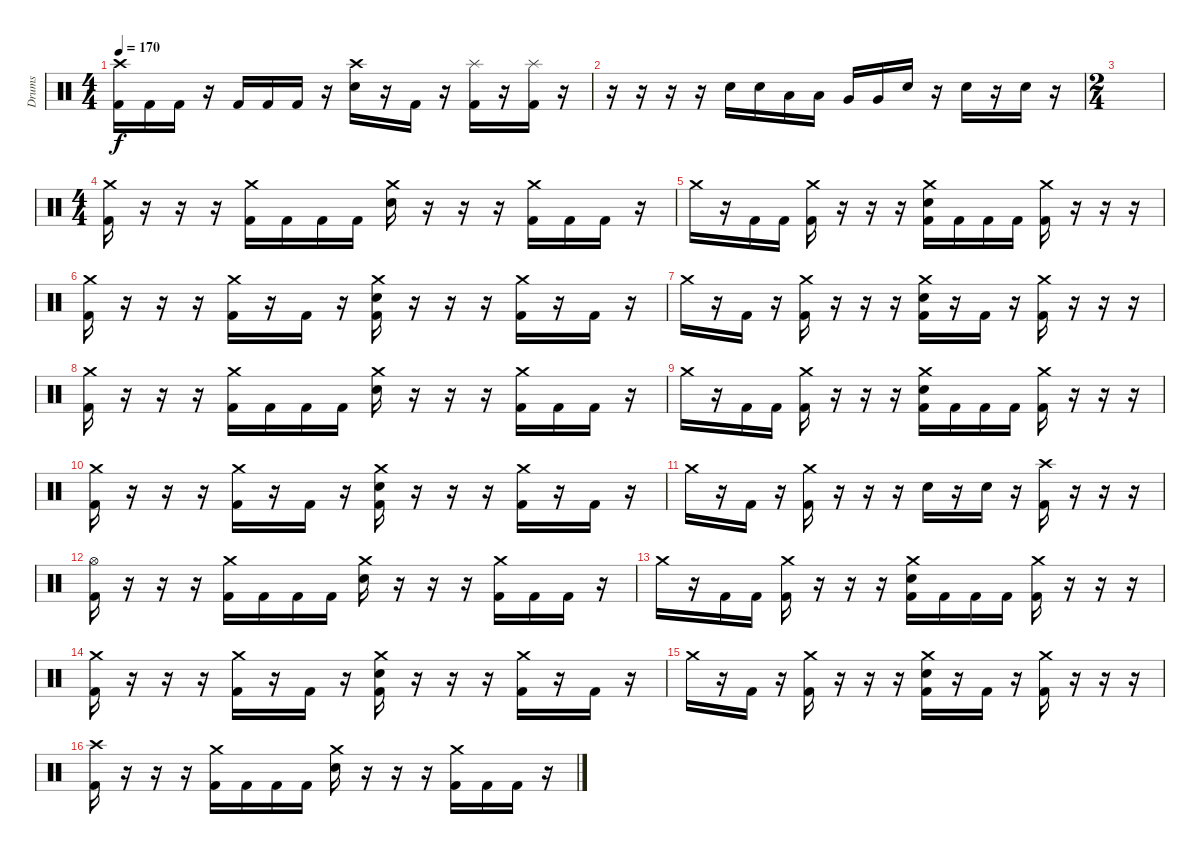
\track ("Drums" "Drums") {instrument percussion}
\staff {score}
\articulation defaults
\ts (4 4)
\tempo 170
\clef neutral
\ks c
("Crash high (hit)" "Kick (hit) 2").16{dy f} "Kick (hit) 2".16 "Kick (hit) 2".16 r.16 "Kick (hit) 2".16 "Kick (hit) 2".16 "Kick (hit) 2".16 r.16 ("Crash high (hit)" "Electric Snare (hit)").16 r.16 "Kick (hit) 2".16 r.16 ("Splash (hit)" "Kick (hit) 2").16 r.16 ("Splash (hit)" "Kick (hit) 2").16 r.16 |
r.16 r.16 r.16 r.16 "Electric Snare (hit)".16 "Electric Snare (hit)".16 "Low Tom (hit)".16 "Low Tom (hit)".16 "Very Low Tom (hit)".16 "Very Low Tom (hit)".16 "Electric Snare (hit)".16 r.16 "Electric Snare (hit)".16 r.16 "Electric Snare (hit)".16 r.16 |
\ts (2 4)
|
\ts (4 4)
("Crash medium (hit)" "Kick (hit) 2").16 r.16 r.16 r.16 ("Crash medium (hit)" "Kick (hit) 2").16 "Kick (hit) 2".16 "Kick (hit) 2".16 "Kick (hit) 2".16 ("Crash medium (hit)" "Electric Snare (hit)").16 r.16 r.16 r.16 ("Crash medium (hit)" "Kick (hit) 2").16 "Kick (hit) 2".16 "Kick (hit) 2".16 r.16 |
"Crash medium (hit)".16 r.16 "Kick (hit) 2".16 "Kick (hit) 2".16 ("Crash medium (hit)" "Kick (hit) 2").16 r.16 r.16 r.16 ("Crash medium (hit)" "Electric Snare (hit)" "Kick (hit) 2").16 "Kick (hit) 2".16 "Kick (hit) 2".16 "Kick (hit) 2".16 ("Crash medium (hit)" "Kick (hit) 2").16 r.16 r.16 r.16 |
("Crash medium (hit)" "Kick (hit) 2").16 r.16 r.16 r.16 ("Crash medium (hit)" "Kick (hit) 2").16 r.16 "Kick (hit) 2".16 r.16 ("Crash medium (hit)" "Electric Snare (hit)" "Kick (hit) 2").16 r.16 r.16 r.16 ("Crash medium (hit)" "Kick (hit) 2").16 r.16 "Kick (hit) 2".16 r.16 |
"Crash medium (hit)".16 r.16 "Kick (hit) 2".16 r.16 ("Crash medium (hit)" "Kick (hit) 2").16 r.16 r.16 r.16 ("Crash medium (hit)" "Electric Snare (hit)" "Kick (hit) 2").16 r.16 "Kick (hit) 2".16 r.16 ("Crash medium (hit)" "Kick (hit) 2").16 r.16 r.16 r.16 |
("Crash medium (hit)" "Kick (hit) 2").16 r.16 r.16 r.16 ("Crash medium (hit)" "Kick (hit) 2").16 "Kick (hit) 2".16 "Kick (hit) 2".16 "Kick (hit) 2".16 ("Crash medium (hit)" "Electric Snare (hit)").16 r.16 r.16 r.16 ("Crash medium (hit)" "Kick (hit) 2").16 "Kick (hit) 2".16 "Kick (hit) 2".16 r.16 |
"Crash medium (hit)".16 r.16 "Kick (hit) 2".16 "Kick (hit) 2".16 ("Crash medium (hit)" "Kick (hit) 2").16 r.16 r.16 r.16 ("Crash medium (hit)" "Electric Snare (hit)" "Kick (hit) 2").16 "Kick (hit) 2".16 "Kick (hit) 2".16 "Kick (hit) 2".16 ("Crash medium (hit)" "Kick (hit) 2").16 r.16 r.16 r.16 |
("Crash medium (hit)" "Kick (hit) 2").16 r.16 r.16 r.16 ("Crash medium (hit)" "Kick (hit) 2").16 r.16 "Kick (hit) 2".16 r.16 ("Crash medium (hit)" "Electric Snare (hit)" "Kick (hit) 2").16 r.16 r.16 r.16 ("Crash medium (hit)" "Kick (hit) 2").16 r.16 "Kick (hit) 2".16 r.16 |
"Crash medium (hit)".16 r.16 "Kick (hit) 2".16 r.16 ("Crash medium (hit)" "Kick (hit) 2").16 r.16 r.16 r.16 "Electric Snare (hit)".16 r.16 "Electric Snare (hit)".16 r.16 ("Crash high (hit)" "Kick (hit) 2").16 r.16 r.16 r.16 |
("Hi-Hat (open)" "Kick (hit) 2").16 r.16 r.16 r.16 ("Crash medium (hit)" "Kick (hit) 2").16 "Kick (hit) 2".16 "Kick (hit) 2".16 "Kick (hit) 2".16 ("Crash medium (hit)" "Electric Snare (hit)").16 r.16 r.16 r.16 ("Crash medium (hit)" "Kick (hit) 2").16 "Kick (hit) 2".16 "Kick (hit) 2".16 r.16 |
"Crash medium (hit)".16 r.16 "Kick (hit) 2".16 "Kick (hit) 2".16 ("Crash medium (hit)" "Kick (hit) 2").16 r.16 r.16 r.16 ("Crash medium (hit)" "Electric Snare (hit)" "Kick (hit) 2").16 "Kick (hit) 2".16 "Kick (hit) 2".16 "Kick (hit) 2".16 ("Crash medium (hit)" "Kick (hit) 2").16 r.16 r.16 r.16 |
("Crash medium (hit)" "Kick (hit) 2").16 r.16 r.16 r.16 ("Crash medium (hit)" "Kick (hit) 2").16 r.16 "Kick (hit) 2".16 r.16 ("Crash medium (hit)" "Electric Snare (hit)" "Kick (hit) 2").16 r.16 r.16 r.16 ("Crash medium (hit)" "Kick (hit) 2").16 r.16 "Kick (hit) 2".16 r.16 |
"Crash medium (hit)".16 r.16 "Kick (hit) 2".16 r.16 ("Crash medium (hit)" "Kick (hit) 2").16 r.16 r.16 r.16 ("Crash medium (hit)" "Electric Snare (hit)" "Kick (hit) 2").16 r.16 "Kick (hit) 2".16 r.16 ("Crash medium (hit)" "Kick (hit) 2").16 r.16 r.16 r.16 |
("Crash high (hit)" "Kick (hit) 2").16 r.16 r.16 r.16 ("Crash medium (hit)" "Kick (hit) 2").16 "Kick (hit) 2".16 "Kick (hit) 2".16 "Kick (hit) 2".16 ("Crash medium (hit)" "Electric Snare (hit)").16 r.16 r.16 r.16 ("Crash medium (hit)" "Kick (hit) 2").16 "Kick (hit) 2".16 "Kick (hit) 2".16 r.16
